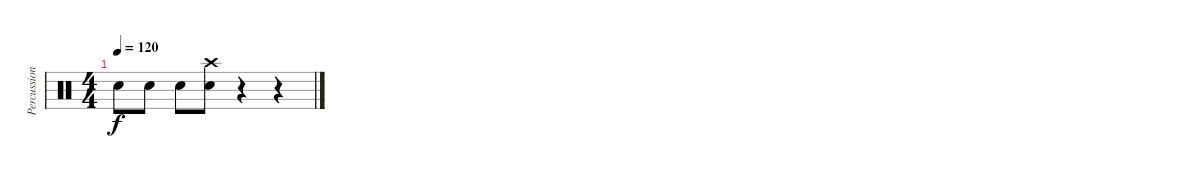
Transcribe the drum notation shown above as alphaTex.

\track ("Percussions" "Percussion") {instrument percussion}
\staff {score}
\articulation defaults
\ts (4 4)
\tempo 120
\clef neutral
\ks c "Snare (hit) 2".8{dy f} "Snare (hit) 2".8 "Snare (hit) 2".8
("Snare (hit) 2" "Crash high (hit)").8 r.4 r.4
